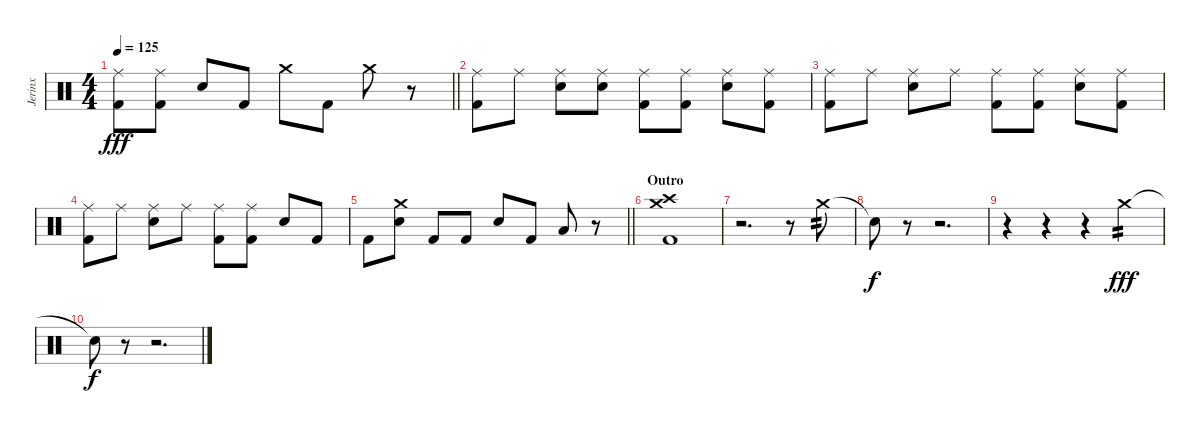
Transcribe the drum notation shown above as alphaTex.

\track ("Jerinx" "Jerinx") {instrument percussion}
\staff {score}
\articulation defaults
\ts (4 4)
\tempo 125
\clef neutral
\barLineRight lightlight
\ks c
("Kick (hit) 2" "Ride (middle)").8{dy fff} ("Kick (hit) 2" "Ride (middle)").8 "Snare (hit) 2".8 "Kick (hit) 2".8 "Crash medium (hit)".8 "Kick (hit) 2".8 "Crash medium (hit)".8 r.8 |
("Kick (hit) 2" "Ride (middle)").8 "Ride (middle)".8 ("Snare (hit) 2" "Ride (middle)").8 ("Snare (hit) 2" "Ride (middle)").8 ("Kick (hit) 2" "Ride (middle)").8 ("Kick (hit) 2" "Ride (middle)").8 ("Snare (hit) 2" "Ride (middle)").8 ("Kick (hit) 2" "Ride (middle)").8 |
("Kick (hit) 2" "Ride (middle)").8 "Ride (middle)".8 ("Snare (hit) 2" "Ride (middle)").8 "Ride (middle)".8 ("Kick (hit) 2" "Ride (middle)").8 ("Kick (hit) 2" "Ride (middle)").8 ("Snare (hit) 2" "Ride (middle)").8 ("Kick (hit) 2" "Ride (middle)").8 |
("Kick (hit) 2" "Ride (middle)").8 "Ride (middle)".8 ("Snare (hit) 2" "Ride (middle)").8 "Ride (middle)".8 ("Kick (hit) 2" "Ride (middle)").8 ("Kick (hit) 2" "Ride (middle)").8 "Snare (hit) 2".8 "Kick (hit) 2".8 |
\barLineRight lightlight "Kick (hit) 2".8
("Snare (hit) 2" "Crash medium (hit)").8 "Kick (hit) 2".8 "Kick (hit) 2".8 "Snare (hit) 2".8 "Kick (hit) 2".8 "Low Tom (hit)".8 r.8 |
\section ("" "Outro")
("Kick (hit) 2" "Crash high (hit)" "Crash medium (hit)").1 |
r.2{d} r.8{volume 3} "Crash medium (hit)".8{tp 2 volume 10} |
"Snare (hit)"{t}.8{dy f} r.8 r.2{d} |
r.4 r.4 r.4{volume 0} "Crash medium (hit)".4{tp 2 dy fff volume 10} |
"Snare (hit)"{t}.8{dy f} r.8 r.2{d}
